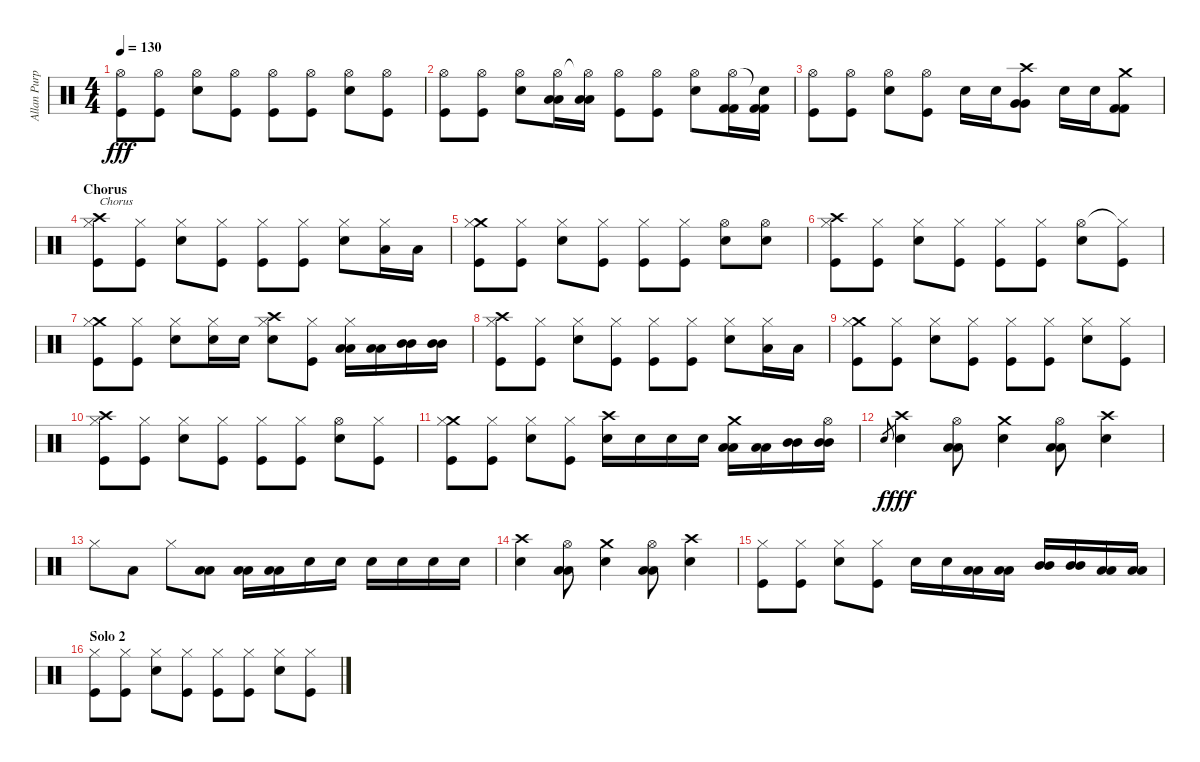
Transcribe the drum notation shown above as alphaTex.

\track ("Allan Purple" "Allan Purp") {instrument percussion}
\staff {score}
\articulation defaults
\ts (4 4)
\tempo 130
\clef neutral
\ks c
("Hi-Hat (open)" "Kick (hit)").8{dy fff} ("Hi-Hat (open)" "Kick (hit)").8 ("Hi-Hat (open)" "Electric Snare (hit)").8 ("Hi-Hat (open)" "Kick (hit)").8 ("Hi-Hat (open)" "Kick (hit)").8 ("Hi-Hat (open)" "Kick (hit)").8 ("Hi-Hat (open)" "Electric Snare (hit)").8 ("Hi-Hat (open)" "Kick (hit)").8 |
("Hi-Hat (open)" "Kick (hit)").8 ("Hi-Hat (open)" "Kick (hit)").8 ("Hi-Hat (open)" "Electric Snare (hit)").8 ("Hi-Hat (open)" "Low Tom (hit)" "Low Tom (hit)").16 ("Hi-Hat (open)"{t} "Low Tom (hit)" "Low Tom (hit)").16 ("Hi-Hat (open)" "Kick (hit)").8 ("Hi-Hat (open)" "Kick (hit)").8 ("Hi-Hat (open)" "Electric Snare (hit)").8 ("Hi-Hat (open)" "Kick (hit) 2" "Kick (hit) 2").16 ("Snare (hit)"{t} "Kick (hit) 2" "Kick (hit) 2").16 |
("Hi-Hat (open)" "Kick (hit)").8 ("Hi-Hat (open)" "Kick (hit)").8 ("Hi-Hat (open)" "Electric Snare (hit)").8 ("Hi-Hat (open)" "Kick (hit)").8 "Electric Snare (hit)".16 "Electric Snare (hit)".16 ("Crash high (hit)" "Very Low Tom (hit)" "Very Low Tom (hit)").8 "Electric Snare (hit)".16 "Electric Snare (hit)".16 ("Crash medium (hit)" "Kick (hit) 2" "Kick (hit) 2").8 |
\section ("" "Chorus")
("Crash high (hit)" "Hi-Hat (closed)" "Kick (hit)").8{txt "Chorus"} ("Hi-Hat (closed)" "Kick (hit)").8 ("Hi-Hat (closed)" "Electric Snare (hit)").8 ("Hi-Hat (closed)" "Kick (hit)").8 ("Hi-Hat (closed)" "Kick (hit)").8 ("Hi-Hat (closed)" "Kick (hit)").8 ("Hi-Hat (closed)" "Electric Snare (hit)").8 ("Hi-Hat (closed)" "Low Tom (hit)").16 "Low Tom (hit)".16 |
("Crash medium (hit)" "Hi-Hat (closed)" "Kick (hit)").8 ("Hi-Hat (closed)" "Kick (hit)").8 ("Hi-Hat (closed)" "Electric Snare (hit)").8 ("Hi-Hat (closed)" "Kick (hit)").8 ("Hi-Hat (closed)" "Kick (hit)").8 ("Hi-Hat (closed)" "Kick (hit)").8 ("Hi-Hat (open)" "Electric Snare (hit)").8 ("Hi-Hat (open)" "Snare (hit) 2").8 |
("Crash high (hit)" "Hi-Hat (closed)" "Kick (hit)").8 ("Hi-Hat (closed)" "Kick (hit)").8 ("Hi-Hat (closed)" "Electric Snare (hit)").8 ("Hi-Hat (closed)" "Kick (hit)").8 ("Hi-Hat (closed)" "Kick (hit)").8 ("Hi-Hat (closed)" "Kick (hit)").8 ("Hi-Hat (open)" "Electric Snare (hit)").8 ("Hi-Hat (closed)"{t} "Kick (hit)").8 |
("Crash medium (hit)" "Hi-Hat (closed)" "Kick (hit)").8 ("Hi-Hat (closed)" "Kick (hit)").8 ("Hi-Hat (closed)" "Electric Snare (hit)").8 ("Hi-Hat (closed)" "Snare (hit) 2").16 "Snare (hit) 2".16 ("Crash high (hit)" "Hi-Hat (closed)" "Electric Snare (hit)").8 ("Hi-Hat (closed)" "Kick (hit)").8 ("Hi-Hat (closed)" "Low Tom (hit)" "Low Tom (hit)").16 ("Low Tom (hit)" "Low Tom (hit)").16 ("Mid Tom (hit)" "Mid Tom (hit)").16 ("Mid Tom (hit)" "Mid Tom (hit)").16 |
("Crash high (hit)" "Hi-Hat (closed)" "Kick (hit)").8 ("Hi-Hat (closed)" "Kick (hit)").8 ("Hi-Hat (closed)" "Electric Snare (hit)").8 ("Hi-Hat (closed)" "Kick (hit)").8 ("Hi-Hat (closed)" "Kick (hit)").8 ("Hi-Hat (closed)" "Kick (hit)").8 ("Hi-Hat (closed)" "Electric Snare (hit)").8 ("Hi-Hat (closed)" "Low Tom (hit)").16 "Low Tom (hit)".16 |
("Crash medium (hit)" "Hi-Hat (closed)" "Kick (hit)").8 ("Hi-Hat (closed)" "Kick (hit)").8 ("Hi-Hat (closed)" "Electric Snare (hit)").8 ("Hi-Hat (closed)" "Kick (hit)").8 ("Hi-Hat (closed)" "Kick (hit)").8 ("Hi-Hat (closed)" "Kick (hit)").8 ("Hi-Hat (closed)" "Electric Snare (hit)").8 ("Hi-Hat (closed)" "Kick (hit)").8 |
("Crash high (hit)" "Hi-Hat (closed)" "Kick (hit)").8 ("Hi-Hat (closed)" "Kick (hit)").8 ("Hi-Hat (closed)" "Electric Snare (hit)").8 ("Hi-Hat (closed)" "Kick (hit)").8 ("Hi-Hat (closed)" "Kick (hit)").8 ("Hi-Hat (closed)" "Kick (hit)").8 ("Hi-Hat (open)" "Electric Snare (hit)").8 ("Hi-Hat (closed)" "Kick (hit)").8 |
("Crash medium (hit)" "Hi-Hat (closed)" "Kick (hit)").8 ("Hi-Hat (closed)" "Kick (hit)").8 ("Hi-Hat (closed)" "Electric Snare (hit)").8 ("Hi-Hat (closed)" "Kick (hit)").8 ("Crash high (hit)" "Electric Snare (hit)").16 "Electric Snare (hit)".16 "Snare (hit) 2".16 "Snare (hit) 2".16 ("Crash medium (hit)" "Low Tom (hit)" "Low Tom (hit)").16 ("Low Tom (hit)" "Low Tom (hit)").16 ("Mid Tom (hit)" "Mid Tom (hit)").16 ("Hi-Hat (open)" "Mid Tom (hit)" "Mid Tom (hit)").16 |
"Electric Snare (hit)".8{gr dy f} ("Crash high (hit)" "Electric Snare (hit)").4{dy fff} ("Hi-Hat (open)" "Low Tom (hit)" "Low Tom (hit)").8 ("Crash medium (hit)" "Snare (hit) 2").4 ("Hi-Hat (open)" "Low Tom (hit)" "Low Tom (hit)").8 ("Crash high (hit)" "Electric Snare (hit)").4 |
"Hi-Hat (closed)".8 "Low Tom (hit)".8 "Hi-Hat (closed)".8 ("Low Tom (hit)" "Low Tom (hit)").8 ("Low Tom (hit)" "Low Tom (hit)").16 ("Low Tom (hit)" "Low Tom (hit)").16 "Snare (hit) 2".16 "Snare (hit) 2".16 "Electric Snare (hit)".16 "Electric Snare (hit)".16 "Snare (hit) 2".16 "Snare (hit) 2".16 |
("Crash high (hit)" "Electric Snare (hit)").4 ("Hi-Hat (open)" "Low Tom (hit)" "Low Tom (hit)").8 ("Crash medium (hit)" "Snare (hit) 2").4 ("Hi-Hat (open)" "Low Tom (hit)" "Low Tom (hit)").8 ("Crash high (hit)" "Electric Snare (hit)").4 |
("Hi-Hat (closed)" "Kick (hit)").8 ("Hi-Hat (closed)" "Kick (hit)").8 ("Hi-Hat (closed)" "Electric Snare (hit)").8 ("Hi-Hat (closed)" "Kick (hit)").8 "Electric Snare (hit)".16 "Electric Snare (hit)".16 ("Low Tom (hit)" "Low Tom (hit)").16 ("Low Tom (hit)" "Low Tom (hit)").16 ("Mid Tom (hit)" "Mid Tom (hit)").16 ("Mid Tom (hit)" "Mid Tom (hit)").16 ("Low Tom (hit)" "Low Tom (hit)").16 ("Low Tom (hit)" "Low Tom (hit)").16 |
\section ("" "Solo 2")
("Hi-Hat (closed)" "Kick (hit)").8 ("Hi-Hat (closed)" "Kick (hit)").8 ("Hi-Hat (closed)" "Electric Snare (hit)").8 ("Hi-Hat (closed)" "Kick (hit)").8 ("Hi-Hat (closed)" "Kick (hit)").8 ("Hi-Hat (closed)" "Kick (hit)").8 ("Hi-Hat (closed)" "Electric Snare (hit)").8 ("Hi-Hat (closed)" "Kick (hit)").8
